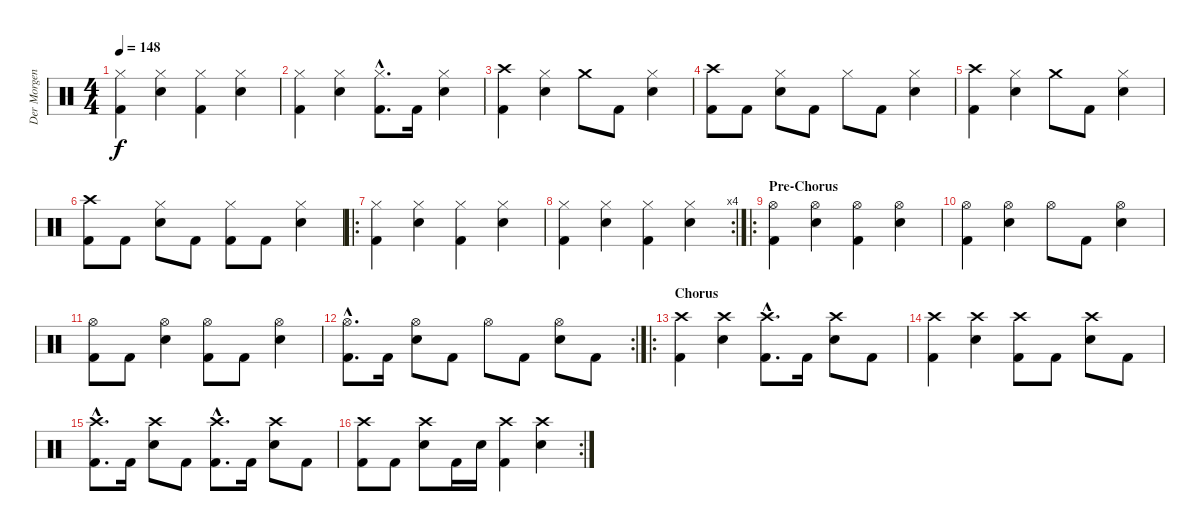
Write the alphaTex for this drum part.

\track ("Der Morgenstern" "Der Morgen") {instrument percussion}
\staff {score}
\articulation defaults
\ts (4 4)
\tempo 148
\clef neutral
\ks c
("Hi-Hat (closed)" "Kick (hit) 2").4{dy f} ("Hi-Hat (closed)" "Snare (hit) 2").4 ("Hi-Hat (closed)" "Kick (hit) 2").4 ("Hi-Hat (closed)" "Snare (hit) 2").4 |
("Hi-Hat (closed)" "Kick (hit) 2").4 ("Snare (hit) 2" "Hi-Hat (closed)").4 ("Hi-Hat (closed)"{hac} "Kick (hit) 2"{hac}).8{d} "Kick (hit) 2".16 ("Hi-Hat (closed)" "Snare (hit) 2").4 |
("Crash high (hit)" "Kick (hit) 2").4 ("Snare (hit) 2" "Hi-Hat (closed)").4 "Crash medium (hit)".8 "Kick (hit) 2".8 ("Hi-Hat (closed)" "Snare (hit) 2").4 |
("Crash high (hit)" "Kick (hit) 2").8 "Kick (hit) 2".8 ("Hi-Hat (closed)" "Snare (hit) 2").8 "Kick (hit) 2".8 "Hi-Hat (closed)".8 "Kick (hit) 2".8 ("Hi-Hat (closed)" "Snare (hit) 2").4 |
("Crash high (hit)" "Kick (hit) 2").4 ("Snare (hit) 2" "Hi-Hat (closed)").4 "Crash medium (hit)".8 "Kick (hit) 2".8 ("Hi-Hat (closed)" "Snare (hit) 2").4 |
("Crash high (hit)" "Kick (hit) 2").8 "Kick (hit) 2".8 ("Hi-Hat (closed)" "Snare (hit) 2").8 "Kick (hit) 2".8 ("Hi-Hat (closed)" "Kick (hit) 2").8 "Kick (hit) 2".8 ("Hi-Hat (closed)" "Snare (hit) 2").4 |
\ro
("Hi-Hat (closed)" "Kick (hit) 2").4 ("Hi-Hat (closed)" "Snare (hit) 2").4 ("Hi-Hat (closed)" "Kick (hit) 2").4 ("Hi-Hat (closed)" "Snare (hit) 2").4 |
\rc 4
("Hi-Hat (closed)" "Kick (hit) 2").4 ("Hi-Hat (closed)" "Snare (hit) 2").4 ("Hi-Hat (closed)" "Kick (hit) 2").4 ("Hi-Hat (closed)" "Snare (hit) 2").4 |
\ro
\section ("" "Pre-Chorus")
("Hi-Hat (open)" "Kick (hit) 2").4 ("Hi-Hat (open)" "Snare (hit) 2").4 ("Hi-Hat (open)" "Kick (hit) 2").4 ("Hi-Hat (open)" "Snare (hit) 2").4 |
("Hi-Hat (open)" "Kick (hit) 2").4 ("Hi-Hat (open)" "Snare (hit) 2").4 "Hi-Hat (open)".8 "Kick (hit) 2".8 ("Hi-Hat (open)" "Snare (hit) 2").4 |
("Kick (hit) 2" "Hi-Hat (open)").8 "Kick (hit) 2".8 ("Snare (hit) 2" "Hi-Hat (open)").4 ("Kick (hit) 2" "Hi-Hat (open)").8 "Kick (hit) 2".8 ("Snare (hit) 2" "Hi-Hat (open)").4 |
\rc 2
("Kick (hit) 2"{hac} "Hi-Hat (open)"{hac}).8{d} "Kick (hit) 2".16 ("Snare (hit) 2" "Hi-Hat (open)").8 "Kick (hit) 2".8 "Hi-Hat (open)".8 "Kick (hit) 2".8 ("Snare (hit) 2" "Hi-Hat (open)").8 "Kick (hit) 2".8 |
\ro
\section ("" "Chorus")
("Crash high (hit)" "Kick (hit) 2").4 ("Crash high (hit)" "Snare (hit) 2").4 ("Crash high (hit)"{hac} "Kick (hit) 2"{hac}).8{d} "Kick (hit) 2".16 ("Crash high (hit)" "Snare (hit) 2").8 "Kick (hit) 2".8 |
("Crash high (hit)" "Kick (hit) 2").4 ("Crash high (hit)" "Snare (hit) 2").4 ("Crash high (hit)" "Kick (hit) 2").8 "Kick (hit) 2".8 ("Crash high (hit)" "Snare (hit) 2").8 "Kick (hit) 2".8 |
("Crash high (hit)"{hac} "Kick (hit) 2"{hac}).8{d} "Kick (hit) 2".16 ("Crash high (hit)" "Snare (hit) 2").8 "Kick (hit) 2".8 ("Crash high (hit)"{hac} "Kick (hit) 2"{hac}).8{d} "Kick (hit) 2".16 ("Crash high (hit)" "Snare (hit) 2").8 "Kick (hit) 2".8 |
\rc 2
("Kick (hit) 2" "Crash high (hit)").8 "Kick (hit) 2".8 ("Snare (hit) 2" "Crash high (hit)").8 "Kick (hit) 2".16 "Snare (hit) 2".16 ("Kick (hit) 2" "Crash high (hit)").4 ("Snare (hit) 2" "Crash high (hit)").4
